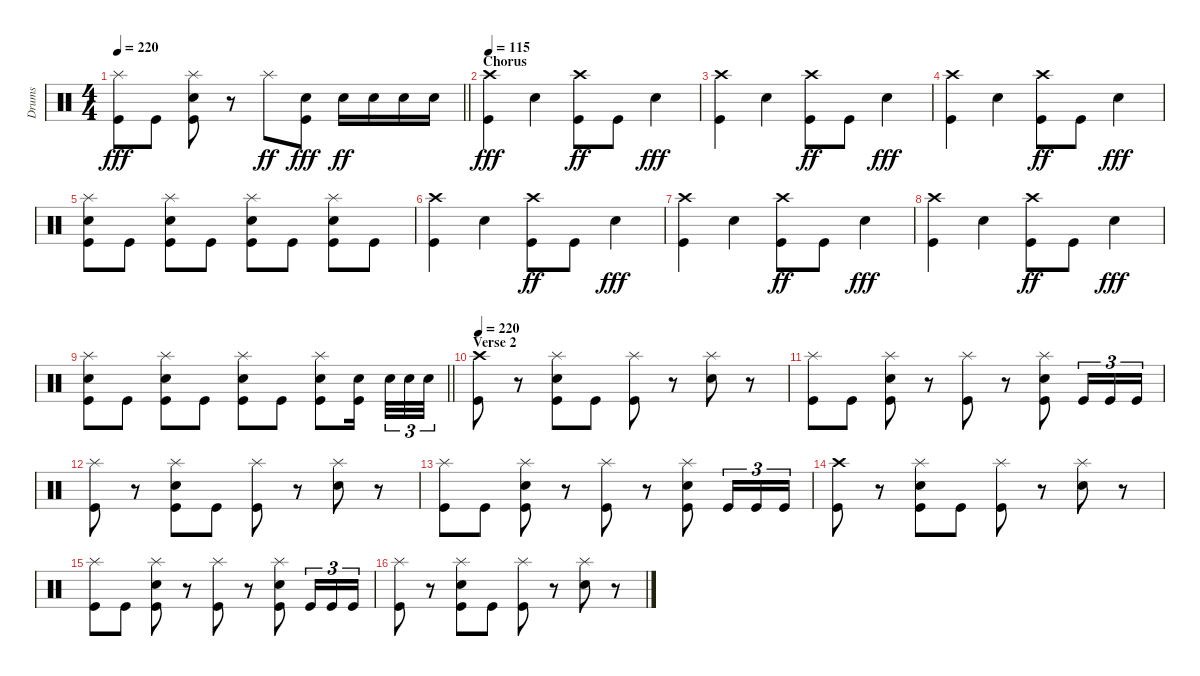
\track ("Drums" "Drums") {instrument percussion}
\staff {score}
\articulation defaults
\ts (4 4)
\tempo 220
\clef neutral
\barLineRight lightlight
\ks c
("Splash (hit)" "Kick (hit)").8{dy fff} "Kick (hit)".8 ("Splash (hit)" "Electric Snare (hit)" "Kick (hit)").8 r.8 "Splash (hit)".8{dy ff} ("Electric Snare (hit)" "Kick (hit)").8{dy fff} "Electric Snare (hit)".16{dy ff} "Electric Snare (hit)".16 "Electric Snare (hit)".16 "Electric Snare (hit)".16 |
\section ("" "Chorus")
\tempo 115
("Crash high (hit)" "Kick (hit)").4{dy fff} "Electric Snare (hit)".4 ("Crash high (hit)" "Kick (hit)").8{dy ff} "Kick (hit)".8 "Electric Snare (hit)".4{dy fff} |
("Crash high (hit)" "Kick (hit)").4 "Electric Snare (hit)".4 ("Crash high (hit)" "Kick (hit)").8{dy ff} "Kick (hit)".8 "Electric Snare (hit)".4{dy fff} |
("Crash high (hit)" "Kick (hit)").4 "Electric Snare (hit)".4 ("Crash high (hit)" "Kick (hit)").8{dy ff} "Kick (hit)".8 "Electric Snare (hit)".4{dy fff} |
("Splash (hit)" "Electric Snare (hit)" "Kick (hit)").8 "Kick (hit)".8 ("Splash (hit)" "Electric Snare (hit)" "Kick (hit)").8 "Kick (hit)".8 ("Splash (hit)" "Electric Snare (hit)" "Kick (hit)").8 "Kick (hit)".8 ("Splash (hit)" "Electric Snare (hit)" "Kick (hit)").8 "Kick (hit)".8 |
("Crash high (hit)" "Kick (hit)").4 "Electric Snare (hit)".4 ("Crash high (hit)" "Kick (hit)").8{dy ff} "Kick (hit)".8 "Electric Snare (hit)".4{dy fff} |
("Crash high (hit)" "Kick (hit)").4 "Electric Snare (hit)".4 ("Crash high (hit)" "Kick (hit)").8{dy ff} "Kick (hit)".8 "Electric Snare (hit)".4{dy fff} |
("Crash high (hit)" "Kick (hit)").4 "Electric Snare (hit)".4 ("Crash high (hit)" "Kick (hit)").8{dy ff} "Kick (hit)".8 "Electric Snare (hit)".4{dy fff} |
\barLineRight lightlight
("Splash (hit)" "Electric Snare (hit)" "Kick (hit)").8 "Kick (hit)".8 ("Splash (hit)" "Electric Snare (hit)" "Kick (hit)").8 "Kick (hit)".8 ("Splash (hit)" "Electric Snare (hit)" "Kick (hit)").8 "Kick (hit)".8 ("Splash (hit)" "Electric Snare (hit)" "Kick (hit)").8 ("Electric Snare (hit)" "Kick (hit)").16{beam splitsecondary} "Electric Snare (hit)".32{tu (3 2)} "Electric Snare (hit)".32{tu (3 2)} "Electric Snare (hit)".32{tu (3 2)} |
\section ("" "Verse 2")
\tempo 220
("Crash high (hit)" "Kick (hit)").8 r.8 ("Splash (hit)" "Electric Snare (hit)" "Kick (hit)").8 "Kick (hit)".8 ("Splash (hit)" "Kick (hit)").8 r.8 ("Splash (hit)" "Electric Snare (hit)").8 r.8 |
("Splash (hit)" "Kick (hit)").8 "Kick (hit)".8 ("Splash (hit)" "Electric Snare (hit)" "Kick (hit)").8 r.8 ("Splash (hit)" "Kick (hit)").8 r.8 ("Splash (hit)" "Electric Snare (hit)" "Kick (hit)").8 "Kick (hit)".16{tu (3 2)} "Kick (hit)".16{tu (3 2)} "Kick (hit)".16{tu (3 2)} |
("Splash (hit)" "Kick (hit)").8 r.8 ("Splash (hit)" "Electric Snare (hit)" "Kick (hit)").8 "Kick (hit)".8 ("Splash (hit)" "Kick (hit)").8 r.8 ("Splash (hit)" "Electric Snare (hit)").8 r.8 |
("Splash (hit)" "Kick (hit)").8 "Kick (hit)".8 ("Splash (hit)" "Electric Snare (hit)" "Kick (hit)").8 r.8 ("Splash (hit)" "Kick (hit)").8 r.8 ("Splash (hit)" "Electric Snare (hit)" "Kick (hit)").8 "Kick (hit)".16{tu (3 2)} "Kick (hit)".16{tu (3 2)} "Kick (hit)".16{tu (3 2)} |
("Crash high (hit)" "Kick (hit)").8 r.8 ("Splash (hit)" "Electric Snare (hit)" "Kick (hit)").8 "Kick (hit)".8 ("Splash (hit)" "Kick (hit)").8 r.8 ("Splash (hit)" "Electric Snare (hit)").8 r.8 |
("Splash (hit)" "Kick (hit)").8 "Kick (hit)".8 ("Splash (hit)" "Electric Snare (hit)" "Kick (hit)").8 r.8 ("Splash (hit)" "Kick (hit)").8 r.8 ("Splash (hit)" "Electric Snare (hit)" "Kick (hit)").8 "Kick (hit)".16{tu (3 2)} "Kick (hit)".16{tu (3 2)} "Kick (hit)".16{tu (3 2)} |
("Splash (hit)" "Kick (hit)").8 r.8 ("Splash (hit)" "Electric Snare (hit)" "Kick (hit)").8 "Kick (hit)".8 ("Splash (hit)" "Kick (hit)").8 r.8 ("Splash (hit)" "Electric Snare (hit)").8 r.8
